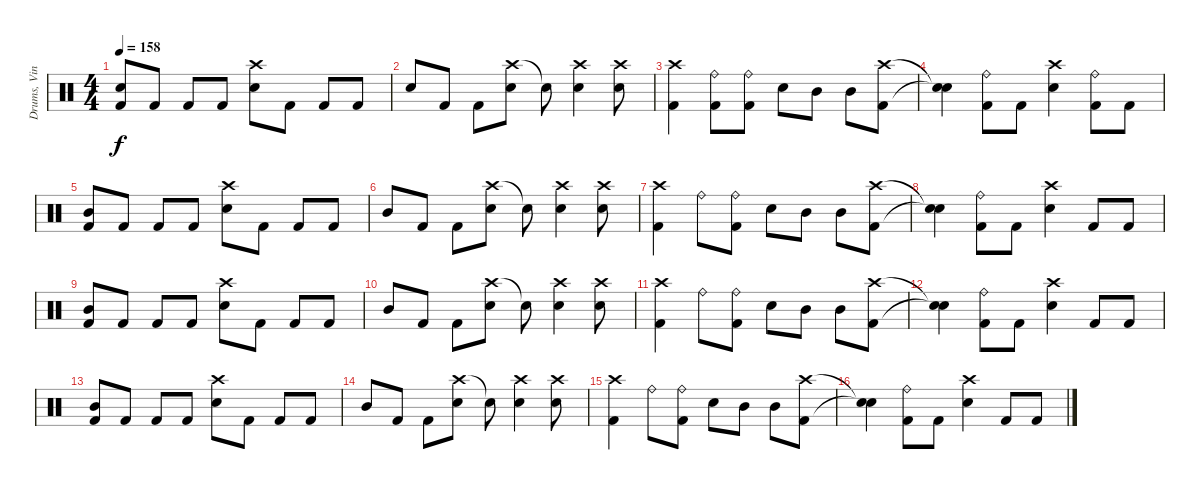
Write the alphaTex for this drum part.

\track ("Drums, Vinnie" "Drums, Vin") {instrument percussion}
\staff {score}
\articulation defaults
\ts (4 4)
\tempo 158
\clef neutral
\ks c
("Electric Snare (hit)" "Kick (hit) 2").8{dy f} "Kick (hit) 2".8 "Kick (hit) 2".8 "Kick (hit) 2".8 ("Crash high (hit)" "Electric Snare (hit)").8 "Kick (hit) 2".8 "Kick (hit) 2".8 "Kick (hit) 2".8 |
"Electric Snare (hit)".8 "Kick (hit) 2".8 "Kick (hit) 2".8 ("Crash high (hit)" "Electric Snare (hit)").8 "Snare (hit)"{t}.8 ("Crash high (hit)" "Electric Snare (hit)").4 ("Crash high (hit)" "Electric Snare (hit)").8 |
("Crash high (hit)" "Kick (hit) 2").4 ("Ride (bell)" "Kick (hit) 2").8 ("Ride (bell)" "Kick (hit) 2").8 "Electric Snare (hit)".8 "Mid Tom (hit)".8 "Mid Tom (hit)".8 ("Crash high (hit)" "Kick (hit) 2").8 |
("Snare (hit)"{t} "Snare (hit)"{t}).4 ("Ride (bell)" "Kick (hit) 2").8 "Kick (hit) 2".8 ("Crash high (hit)" "Electric Snare (hit)").4 ("Ride (bell)" "Kick (hit) 2").8 "Kick (hit) 2".8 |
("Mid Tom (hit)" "Kick (hit) 2").8 "Kick (hit) 2".8 "Kick (hit) 2".8 "Kick (hit) 2".8 ("Crash high (hit)" "Electric Snare (hit)").8 "Kick (hit) 2".8 "Kick (hit) 2".8 "Kick (hit) 2".8 |
"Mid Tom (hit)".8 "Kick (hit) 2".8 "Kick (hit) 2".8 ("Crash high (hit)" "Electric Snare (hit)").8 "Snare (hit)"{t}.8 ("Crash high (hit)" "Electric Snare (hit)").4 ("Crash high (hit)" "Electric Snare (hit)").8 |
("Crash high (hit)" "Kick (hit) 2").4 "Ride (bell)".8 ("Ride (bell)" "Kick (hit) 2").8 "Electric Snare (hit)".8 "Mid Tom (hit)".8 "Mid Tom (hit)".8 ("Crash high (hit)" "Kick (hit) 2").8 |
("Snare (hit)"{t} "Snare (hit)"{t}).4 ("Ride (bell)" "Kick (hit) 2").8 "Kick (hit) 2".8 ("Crash high (hit)" "Electric Snare (hit)").4 "Kick (hit) 2".8 "Kick (hit) 2".8 |
("Mid Tom (hit)" "Kick (hit) 2").8 "Kick (hit) 2".8 "Kick (hit) 2".8 "Kick (hit) 2".8 ("Crash high (hit)" "Electric Snare (hit)").8 "Kick (hit) 2".8 "Kick (hit) 2".8 "Kick (hit) 2".8 |
"Mid Tom (hit)".8 "Kick (hit) 2".8 "Kick (hit) 2".8 ("Crash high (hit)" "Electric Snare (hit)").8 "Snare (hit)"{t}.8 ("Crash high (hit)" "Electric Snare (hit)").4 ("Crash high (hit)" "Electric Snare (hit)").8 |
("Crash high (hit)" "Kick (hit) 2").4 "Ride (bell)".8 ("Ride (bell)" "Kick (hit) 2").8 "Electric Snare (hit)".8 "Mid Tom (hit)".8 "Mid Tom (hit)".8 ("Crash high (hit)" "Kick (hit) 2").8 |
("Snare (hit)"{t} "Snare (hit)"{t}).4 ("Ride (bell)" "Kick (hit) 2").8 "Kick (hit) 2".8 ("Crash high (hit)" "Electric Snare (hit)").4 "Kick (hit) 2".8 "Kick (hit) 2".8 |
("Mid Tom (hit)" "Kick (hit) 2").8 "Kick (hit) 2".8 "Kick (hit) 2".8 "Kick (hit) 2".8 ("Crash high (hit)" "Electric Snare (hit)").8 "Kick (hit) 2".8 "Kick (hit) 2".8 "Kick (hit) 2".8 |
"Mid Tom (hit)".8 "Kick (hit) 2".8 "Kick (hit) 2".8 ("Crash high (hit)" "Electric Snare (hit)").8 "Snare (hit)"{t}.8 ("Crash high (hit)" "Electric Snare (hit)").4 ("Crash high (hit)" "Electric Snare (hit)").8 |
("Crash high (hit)" "Kick (hit) 2").4 "Ride (bell)".8 ("Ride (bell)" "Kick (hit) 2").8 "Electric Snare (hit)".8 "Mid Tom (hit)".8 "Mid Tom (hit)".8 ("Crash high (hit)" "Kick (hit) 2").8 |
("Snare (hit)"{t} "Snare (hit)"{t}).4 ("Ride (bell)" "Kick (hit) 2").8 "Kick (hit) 2".8 ("Crash high (hit)" "Electric Snare (hit)").4 "Kick (hit) 2".8 "Kick (hit) 2".8
